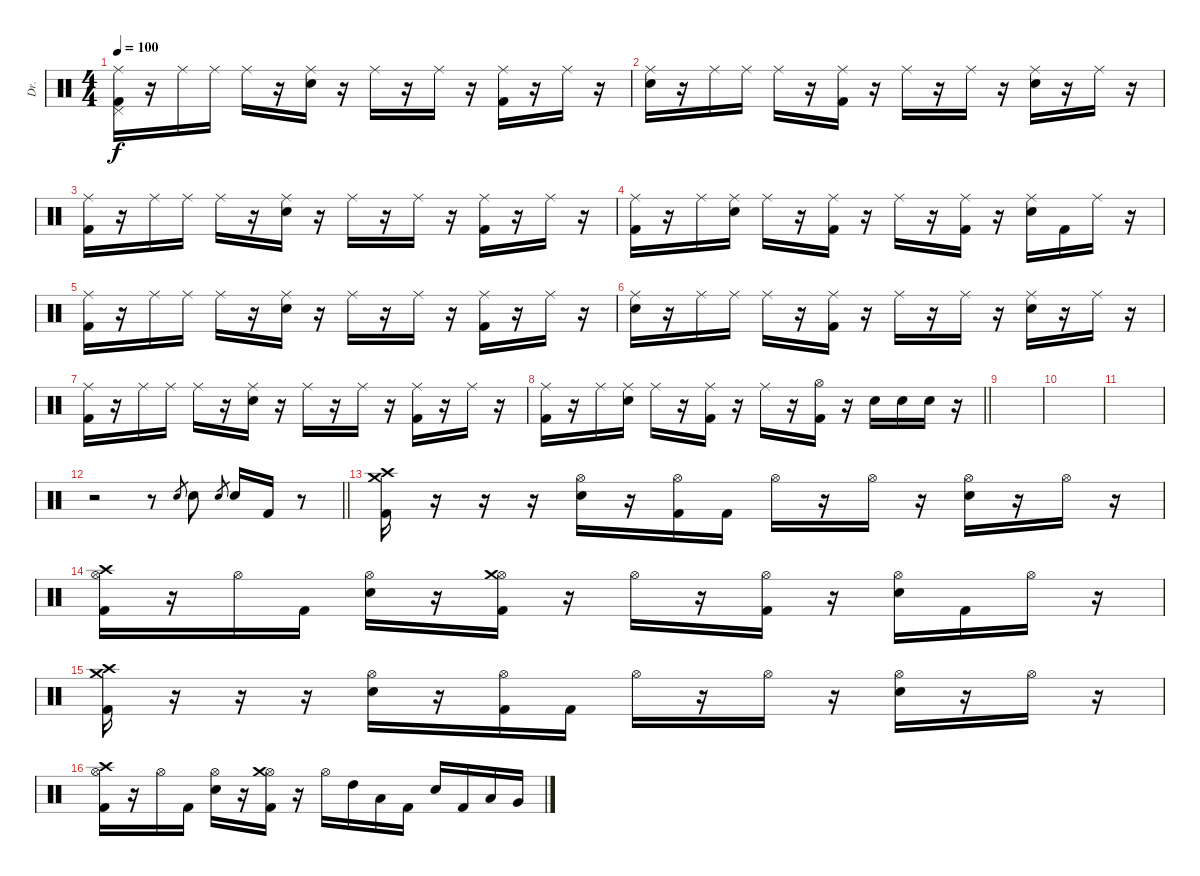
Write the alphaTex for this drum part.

\track ("Dr." "Dr.") {instrument percussion}
\staff {score}
\articulation defaults
\ts (4 4)
\tempo 100
\clef neutral
\ks c
("Ride (middle)" "Pedal Hi-Hat (hit)" "Kick (hit) 2").16{dy f} r.16 "Ride (middle)".16 "Ride (middle)".16 "Ride (middle)".16 r.16 ("Ride (middle)" "Electric Snare (hit)").16 r.16 "Ride (middle)".16 r.16 "Ride (middle)".16 r.16 ("Ride (middle)" "Kick (hit) 2").16 r.16 "Ride (middle)".16 r.16 |
("Ride (middle)" "Electric Snare (hit)").16 r.16 "Ride (middle)".16 "Ride (middle)".16 "Ride (middle)".16 r.16 ("Ride (middle)" "Kick (hit) 2").16 r.16 "Ride (middle)".16 r.16 "Ride (middle)".16 r.16 ("Ride (middle)" "Electric Snare (hit)").16 r.16 "Ride (middle)".16 r.16 |
("Ride (middle)" "Kick (hit) 2").16 r.16 "Ride (middle)".16 "Ride (middle)".16 "Ride (middle)".16 r.16 ("Ride (middle)" "Electric Snare (hit)").16 r.16 "Ride (middle)".16 r.16 "Ride (middle)".16 r.16 ("Ride (middle)" "Kick (hit) 2").16 r.16 "Ride (middle)".16 r.16 |
("Ride (middle)" "Kick (hit) 2").16 r.16 "Ride (middle)".16 ("Ride (middle)" "Electric Snare (hit)").16 "Ride (middle)".16 r.16 ("Ride (middle)" "Kick (hit) 2").16 r.16 "Ride (middle)".16 r.16 ("Ride (middle)" "Kick (hit) 2").16 r.16 ("Ride (middle)" "Electric Snare (hit)").16 "Kick (hit) 2".16 "Ride (middle)".16 r.16 |
("Ride (middle)" "Kick (hit) 2").16 r.16 "Ride (middle)".16 "Ride (middle)".16 "Ride (middle)".16 r.16 ("Ride (middle)" "Electric Snare (hit)").16 r.16 "Ride (middle)".16 r.16 "Ride (middle)".16 r.16 ("Ride (middle)" "Kick (hit) 2").16 r.16 "Ride (middle)".16 r.16 |
("Ride (middle)" "Electric Snare (hit)").16 r.16 "Ride (middle)".16 "Ride (middle)".16 "Ride (middle)".16 r.16 ("Ride (middle)" "Kick (hit) 2").16 r.16 "Ride (middle)".16 r.16 "Ride (middle)".16 r.16 ("Ride (middle)" "Electric Snare (hit)").16 r.16 "Ride (middle)".16 r.16 |
("Ride (middle)" "Kick (hit) 2").16 r.16 "Ride (middle)".16 "Ride (middle)".16 "Ride (middle)".16 r.16 ("Ride (middle)" "Electric Snare (hit)").16 r.16 "Ride (middle)".16 r.16 "Ride (middle)".16 r.16 ("Ride (middle)" "Kick (hit) 2").16 r.16 "Ride (middle)".16 r.16 |
\barLineRight lightlight
("Ride (middle)" "Kick (hit) 2").16 r.16 "Ride (middle)".16 ("Ride (middle)" "Electric Snare (hit)").16 "Ride (middle)".16 r.16 ("Ride (middle)" "Kick (hit) 2").16 r.16 "Ride (middle)".16 r.16 ("Hi-Hat (open)" "Kick (hit) 2").16 r.16 "Electric Snare (hit)".16 "Electric Snare (hit)".16 "Electric Snare (hit)".16 r.16 |
|
|
|
\barLineRight lightlight
r.2 r.8 "Electric Snare (hit)".8{gr} "Electric Snare (hit)".8 "Electric Snare (hit)".8{gr} "Electric Snare (hit)".16 "Kick (hit) 2".16 r.8 |
("Crash high (hit)" "Crash medium (hit)" "Kick (hit) 2").16 r.16 r.16 r.16 ("Hi-Hat (open)" "Electric Snare (hit)").16 r.16 ("Hi-Hat (open)" "Kick (hit) 2").16 "Kick (hit) 2".16 "Hi-Hat (open)".16 r.16 "Hi-Hat (open)".16 r.16 ("Hi-Hat (open)" "Electric Snare (hit)").16 r.16 "Hi-Hat (open)".16 r.16 |
("Hi-Hat (open)" "Crash high (hit)" "Kick (hit) 2").16 r.16 "Hi-Hat (open)".16 "Kick (hit) 2".16 ("Hi-Hat (open)" "Electric Snare (hit)").16 r.16 ("Hi-Hat (open)" "Crash medium (hit)" "Kick (hit) 2").16 r.16 "Hi-Hat (open)".16 r.16 ("Hi-Hat (open)" "Kick (hit) 2").16 r.16 ("Hi-Hat (open)" "Electric Snare (hit)").16 "Kick (hit) 2".16 "Hi-Hat (open)".16 r.16 |
("Crash high (hit)" "Crash medium (hit)" "Kick (hit) 2").16 r.16 r.16 r.16 ("Hi-Hat (open)" "Electric Snare (hit)").16 r.16 ("Hi-Hat (open)" "Kick (hit) 2").16 "Kick (hit) 2".16 "Hi-Hat (open)".16 r.16 "Hi-Hat (open)".16 r.16 ("Hi-Hat (open)" "Electric Snare (hit)").16 r.16 "Hi-Hat (open)".16 r.16 |
("Hi-Hat (open)" "Crash high (hit)" "Kick (hit) 2").16 r.16 "Hi-Hat (open)".16 "Kick (hit) 2".16 ("Hi-Hat (open)" "Electric Snare (hit)").16 r.16 ("Hi-Hat (open)" "Crash medium (hit)" "Kick (hit) 2").16 r.16 "Hi-Hat (open)".16 "High Tom (hit)".16 "Low Tom (hit)".16 "Kick (hit) 2".16 "Electric Snare (hit)".16 "Kick (hit) 2".16 "Low Tom (hit)".16 "Very Low Tom (hit)".16
